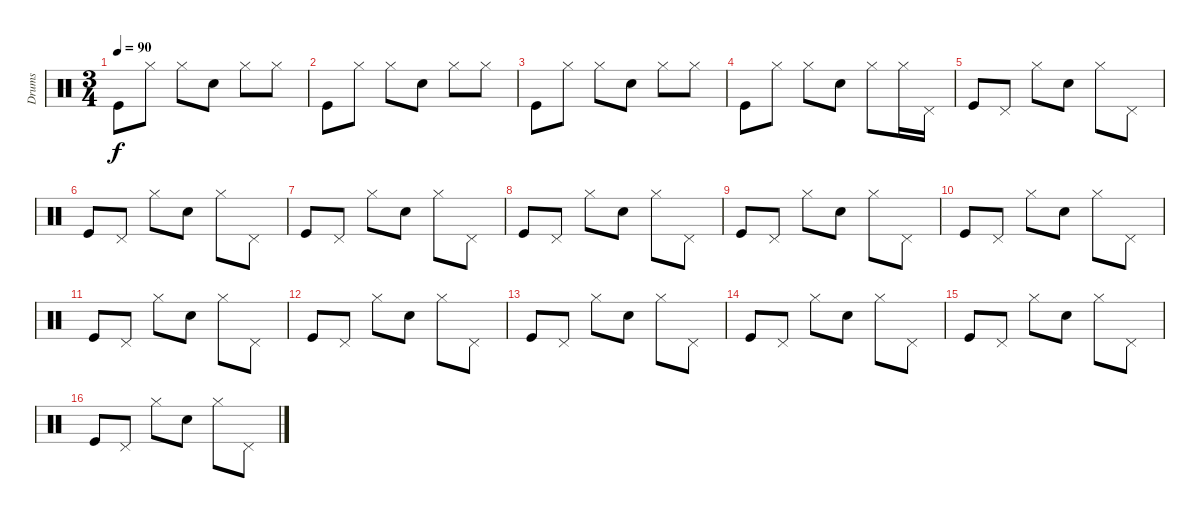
\track ("Drums" "Drums") {instrument percussion}
\staff {score}
\articulation defaults
\ts (3 4)
\tempo 90
\clef neutral
\ks c "Kick (hit)".8{dy f} "Hi-Hat (closed)".8 "Hi-Hat (closed)".8 "Snare (hit) 2".8 "Hi-Hat (closed)".8 "Hi-Hat (closed)".8
|
"Kick (hit)".8 "Hi-Hat (closed)".8 "Hi-Hat (closed)".8 "Snare (hit) 2".8 "Hi-Hat (closed)".8 "Hi-Hat (closed)".8 |
"Kick (hit)".8 "Hi-Hat (closed)".8 "Hi-Hat (closed)".8 "Snare (hit) 2".8 "Hi-Hat (closed)".8 "Hi-Hat (closed)".8 |
"Kick (hit)".8 "Hi-Hat (closed)".8 "Hi-Hat (closed)".8 "Snare (hit) 2".8 "Hi-Hat (closed)".8 "Hi-Hat (closed)".16 "Pedal Hi-Hat (hit)".16 |
"Kick (hit)".8 "Pedal Hi-Hat (hit)".8 "Hi-Hat (closed)".8 "Snare (hit) 2".8 "Hi-Hat (closed)".8 "Pedal Hi-Hat (hit)".8 |
"Kick (hit)".8 "Pedal Hi-Hat (hit)".8 "Hi-Hat (closed)".8 "Snare (hit) 2".8 "Hi-Hat (closed)".8 "Pedal Hi-Hat (hit)".8 |
"Kick (hit)".8 "Pedal Hi-Hat (hit)".8 "Hi-Hat (closed)".8 "Snare (hit) 2".8 "Hi-Hat (closed)".8 "Pedal Hi-Hat (hit)".8 |
"Kick (hit)".8 "Pedal Hi-Hat (hit)".8 "Hi-Hat (closed)".8 "Snare (hit) 2".8 "Hi-Hat (closed)".8 "Pedal Hi-Hat (hit)".8 |
"Kick (hit)".8 "Pedal Hi-Hat (hit)".8 "Hi-Hat (closed)".8 "Snare (hit) 2".8 "Hi-Hat (closed)".8 "Pedal Hi-Hat (hit)".8 |
"Kick (hit)".8 "Pedal Hi-Hat (hit)".8 "Hi-Hat (closed)".8 "Snare (hit) 2".8 "Hi-Hat (closed)".8 "Pedal Hi-Hat (hit)".8 |
"Kick (hit)".8 "Pedal Hi-Hat (hit)".8 "Hi-Hat (closed)".8 "Snare (hit) 2".8 "Hi-Hat (closed)".8 "Pedal Hi-Hat (hit)".8 |
"Kick (hit)".8 "Pedal Hi-Hat (hit)".8 "Hi-Hat (closed)".8 "Snare (hit) 2".8 "Hi-Hat (closed)".8 "Pedal Hi-Hat (hit)".8 |
"Kick (hit)".8 "Pedal Hi-Hat (hit)".8 "Hi-Hat (closed)".8 "Snare (hit) 2".8 "Hi-Hat (closed)".8 "Pedal Hi-Hat (hit)".8 |
"Kick (hit)".8 "Pedal Hi-Hat (hit)".8 "Hi-Hat (closed)".8 "Snare (hit) 2".8 "Hi-Hat (closed)".8 "Pedal Hi-Hat (hit)".8 |
"Kick (hit)".8 "Pedal Hi-Hat (hit)".8 "Hi-Hat (closed)".8 "Snare (hit) 2".8 "Hi-Hat (closed)".8 "Pedal Hi-Hat (hit)".8 |
"Kick (hit)".8 "Pedal Hi-Hat (hit)".8 "Hi-Hat (closed)".8 "Snare (hit) 2".8 "Hi-Hat (closed)".8 "Pedal Hi-Hat (hit)".8
